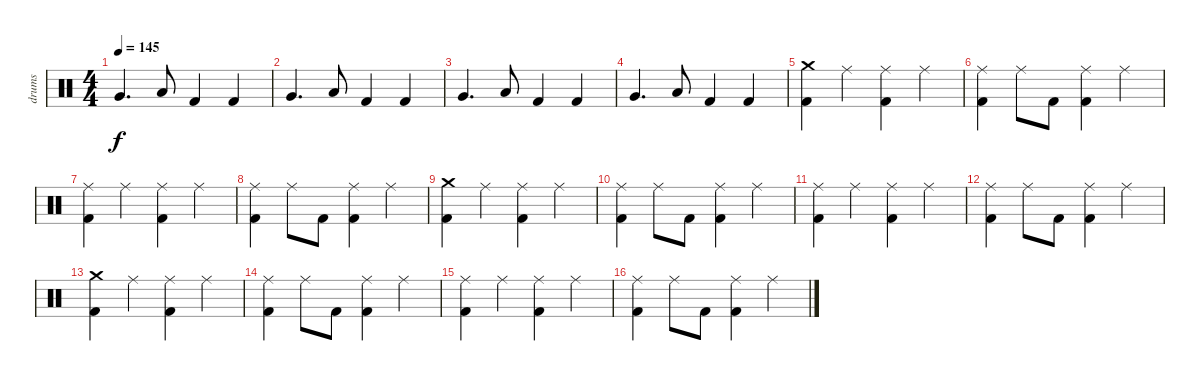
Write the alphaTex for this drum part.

\track ("drums" "drums") {instrument percussion}
\staff {score}
\articulation defaults
\ts (4 4)
\tempo 145
\clef neutral
\ks c "Very Low Tom (hit)".4{d dy f} "Low Floor Tom (hit)".8 "Kick (hit) 2".4 "Kick (hit) 2".4
|
"Very Low Tom (hit)".4{d} "Low Floor Tom (hit)".8 "Kick (hit) 2".4 "Kick (hit) 2".4 |
"Very Low Tom (hit)".4{d} "Low Floor Tom (hit)".8 "Kick (hit) 2".4 "Kick (hit) 2".4 |
"Very Low Tom (hit)".4{d} "Low Floor Tom (hit)".8 "Kick (hit) 2".4 "Kick (hit) 2".4 |
("Crash medium (hit)" "Kick (hit) 2").4 "Ride (middle)".4 ("Ride (middle)" "Kick (hit) 2").4 "Ride (middle)".4 |
("Ride (middle)" "Kick (hit) 2").4 "Ride (middle)".8 "Kick (hit) 2".8 ("Ride (middle)" "Kick (hit) 2").4 "Ride (middle)".4 |
("Ride (middle)" "Kick (hit) 2").4 "Ride (middle)".4 ("Ride (middle)" "Kick (hit) 2").4 "Ride (middle)".4 |
("Ride (middle)" "Kick (hit) 2").4 "Ride (middle)".8 "Kick (hit) 2".8 ("Ride (middle)" "Kick (hit) 2").4 "Ride (middle)".4 |
("Crash medium (hit)" "Kick (hit) 2").4 "Ride (middle)".4 ("Ride (middle)" "Kick (hit) 2").4 "Ride (middle)".4 |
("Ride (middle)" "Kick (hit) 2").4 "Ride (middle)".8 "Kick (hit) 2".8 ("Ride (middle)" "Kick (hit) 2").4 "Ride (middle)".4 |
("Ride (middle)" "Kick (hit) 2").4 "Ride (middle)".4 ("Ride (middle)" "Kick (hit) 2").4 "Ride (middle)".4 |
("Ride (middle)" "Kick (hit) 2").4 "Ride (middle)".8 "Kick (hit) 2".8 ("Ride (middle)" "Kick (hit) 2").4 "Ride (middle)".4 |
("Crash medium (hit)" "Kick (hit) 2").4 "Ride (middle)".4 ("Ride (middle)" "Kick (hit) 2").4 "Ride (middle)".4 |
("Ride (middle)" "Kick (hit) 2").4 "Ride (middle)".8 "Kick (hit) 2".8 ("Ride (middle)" "Kick (hit) 2").4 "Ride (middle)".4 |
("Ride (middle)" "Kick (hit) 2").4 "Ride (middle)".4 ("Ride (middle)" "Kick (hit) 2").4 "Ride (middle)".4 |
("Ride (middle)" "Kick (hit) 2").4 "Ride (middle)".8 "Kick (hit) 2".8 ("Ride (middle)" "Kick (hit) 2").4 "Ride (middle)".4
